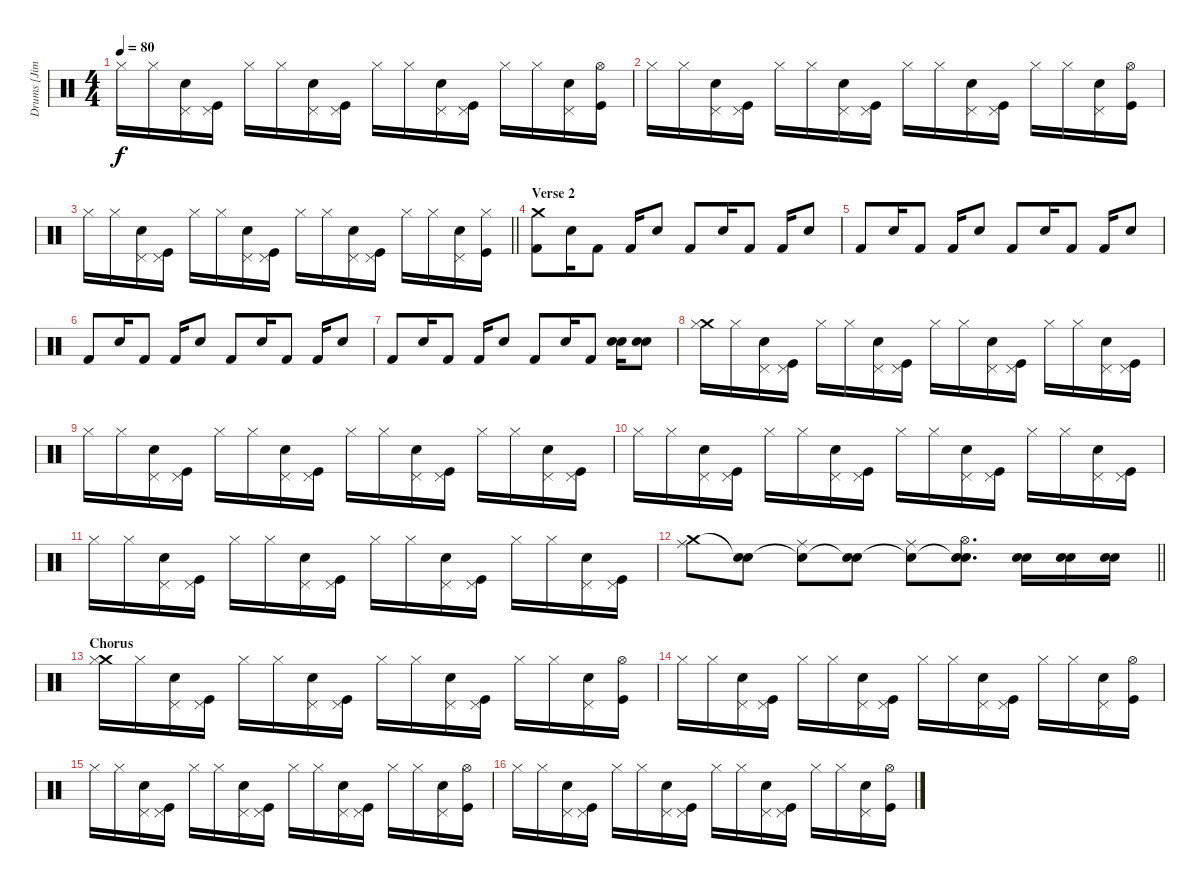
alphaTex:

\track ("Drums [Jim Duguid]" "Drums [Jim") {instrument percussion}
\staff {score}
\articulation defaults
\ts (4 4)
\tempo 80
\clef neutral
\ks c "Hi-Hat (closed)".16{dy f} "Hi-Hat (closed)".16
("Pedal Hi-Hat (hit)" "Snare (hit) 2").16 ("Pedal Hi-Hat (hit)" "Kick (hit)").16 "Hi-Hat (closed)".16 "Hi-Hat (closed)".16 ("Pedal Hi-Hat (hit)" "Snare (hit) 2").16 ("Pedal Hi-Hat (hit)" "Kick (hit)").16 "Hi-Hat (closed)".16 "Hi-Hat (closed)".16 ("Pedal Hi-Hat (hit)" "Snare (hit) 2").16 ("Pedal Hi-Hat (hit)" "Kick (hit)").16 "Hi-Hat (closed)".16 "Hi-Hat (closed)".16 ("Pedal Hi-Hat (hit)" "Snare (hit) 2").16 ("Hi-Hat (open)" "Kick (hit)").16 |
"Hi-Hat (closed)".16 "Hi-Hat (closed)".16 ("Pedal Hi-Hat (hit)" "Snare (hit) 2").16 ("Pedal Hi-Hat (hit)" "Kick (hit)").16 "Hi-Hat (closed)".16 "Hi-Hat (closed)".16 ("Pedal Hi-Hat (hit)" "Snare (hit) 2").16 ("Pedal Hi-Hat (hit)" "Kick (hit)").16 "Hi-Hat (closed)".16 "Hi-Hat (closed)".16 ("Pedal Hi-Hat (hit)" "Snare (hit) 2").16 ("Pedal Hi-Hat (hit)" "Kick (hit)").16 "Hi-Hat (closed)".16 "Hi-Hat (closed)".16 ("Pedal Hi-Hat (hit)" "Snare (hit) 2").16 ("Hi-Hat (open)" "Kick (hit)").16 |
\barLineRight lightlight "Hi-Hat (closed)".16 "Hi-Hat (closed)".16
("Pedal Hi-Hat (hit)" "Snare (hit) 2").16 ("Pedal Hi-Hat (hit)" "Kick (hit)").16 "Hi-Hat (closed)".16 "Hi-Hat (closed)".16 ("Pedal Hi-Hat (hit)" "Snare (hit) 2").16 ("Pedal Hi-Hat (hit)" "Kick (hit)").16 "Hi-Hat (closed)".16 "Hi-Hat (closed)".16 ("Pedal Hi-Hat (hit)" "Snare (hit) 2").16 ("Pedal Hi-Hat (hit)" "Kick (hit)").16 "Hi-Hat (closed)".16 "Hi-Hat (closed)".16 ("Pedal Hi-Hat (hit)" "Snare (hit) 2").16 ("Hi-Hat (closed)" "Kick (hit)").16 |
\section ("" "Verse 2")
("Crash medium (hit)" "Kick (hit) 2").8 "Snare (hit) 2".16 "Kick (hit) 2".8 "Kick (hit) 2".16 "Snare (hit) 2".8 "Kick (hit) 2".8 "Snare (hit) 2".16 "Kick (hit) 2".8 "Kick (hit) 2".16 "Snare (hit) 2".8 |
"Kick (hit) 2".8 "Snare (hit) 2".16 "Kick (hit) 2".8 "Kick (hit) 2".16 "Snare (hit) 2".8 "Kick (hit) 2".8 "Snare (hit) 2".16 "Kick (hit) 2".8 "Kick (hit) 2".16 "Snare (hit) 2".8 |
"Kick (hit) 2".8 "Snare (hit) 2".16 "Kick (hit) 2".8 "Kick (hit) 2".16 "Snare (hit) 2".8 "Kick (hit) 2".8 "Snare (hit) 2".16 "Kick (hit) 2".8 "Kick (hit) 2".16 "Snare (hit) 2".8 |
"Kick (hit) 2".8 "Snare (hit) 2".16 "Kick (hit) 2".8 "Kick (hit) 2".16 "Snare (hit) 2".8 "Kick (hit) 2".8 "Snare (hit) 2".16 "Kick (hit) 2".8 ("Electric Snare (hit)" "Snare (hit) 2").16 ("Electric Snare (hit)" "Snare (hit) 2").8 |
("Crash medium (hit)" "Hi-Hat (closed)").16 "Hi-Hat (closed)".16 ("Pedal Hi-Hat (hit)" "Snare (hit) 2").16 ("Pedal Hi-Hat (hit)" "Kick (hit)").16 "Hi-Hat (closed)".16 "Hi-Hat (closed)".16 ("Pedal Hi-Hat (hit)" "Snare (hit) 2").16 ("Pedal Hi-Hat (hit)" "Kick (hit)").16 "Hi-Hat (closed)".16 "Hi-Hat (closed)".16 ("Pedal Hi-Hat (hit)" "Snare (hit) 2").16 ("Pedal Hi-Hat (hit)" "Kick (hit)").16 "Hi-Hat (closed)".16 "Hi-Hat (closed)".16 ("Pedal Hi-Hat (hit)" "Snare (hit) 2").16 ("Pedal Hi-Hat (hit)" "Kick (hit)").16 |
"Hi-Hat (closed)".16 "Hi-Hat (closed)".16 ("Pedal Hi-Hat (hit)" "Snare (hit) 2").16 ("Pedal Hi-Hat (hit)" "Kick (hit)").16 "Hi-Hat (closed)".16 "Hi-Hat (closed)".16 ("Pedal Hi-Hat (hit)" "Snare (hit) 2").16 ("Pedal Hi-Hat (hit)" "Kick (hit)").16 "Hi-Hat (closed)".16 "Hi-Hat (closed)".16 ("Pedal Hi-Hat (hit)" "Snare (hit) 2").16 ("Pedal Hi-Hat (hit)" "Kick (hit)").16 "Hi-Hat (closed)".16 "Hi-Hat (closed)".16 ("Pedal Hi-Hat (hit)" "Snare (hit) 2").16 ("Pedal Hi-Hat (hit)" "Kick (hit)").16 |
"Hi-Hat (closed)".16 "Hi-Hat (closed)".16 ("Pedal Hi-Hat (hit)" "Snare (hit) 2").16 ("Pedal Hi-Hat (hit)" "Kick (hit)").16 "Hi-Hat (closed)".16 "Hi-Hat (closed)".16 ("Pedal Hi-Hat (hit)" "Snare (hit) 2").16 ("Pedal Hi-Hat (hit)" "Kick (hit)").16 "Hi-Hat (closed)".16 "Hi-Hat (closed)".16 ("Pedal Hi-Hat (hit)" "Snare (hit) 2").16 ("Pedal Hi-Hat (hit)" "Kick (hit)").16 "Hi-Hat (closed)".16 "Hi-Hat (closed)".16 ("Pedal Hi-Hat (hit)" "Snare (hit) 2").16 ("Pedal Hi-Hat (hit)" "Kick (hit)").16 |
"Hi-Hat (closed)".16 "Hi-Hat (closed)".16 ("Pedal Hi-Hat (hit)" "Snare (hit) 2").16 ("Pedal Hi-Hat (hit)" "Kick (hit)").16 "Hi-Hat (closed)".16 "Hi-Hat (closed)".16 ("Pedal Hi-Hat (hit)" "Snare (hit) 2").16 ("Pedal Hi-Hat (hit)" "Kick (hit)").16 "Hi-Hat (closed)".16 "Hi-Hat (closed)".16 ("Pedal Hi-Hat (hit)" "Snare (hit) 2").16 ("Pedal Hi-Hat (hit)" "Kick (hit)").16 "Hi-Hat (closed)".16 "Hi-Hat (closed)".16 ("Pedal Hi-Hat (hit)" "Snare (hit) 2").16 ("Pedal Hi-Hat (hit)" "Kick (hit)").16 |
\barLineRight lightlight
("Crash medium (hit)" "Ride (middle)").8 ("Snare (hit)"{t} "Hand Clap (hit)").8 ("Snare (hit)"{t} "Ride (middle)").8 ("Snare (hit)"{t} "Hand Clap (hit)").8 ("Snare (hit)"{t} "Ride (middle)").8 ("Snare (hit)"{t} "Hi-Hat (open)" "Hand Clap (hit)").8{d} ("Snare (hit) 2" "Electric Snare (hit)").16 ("Snare (hit) 2" "Electric Snare (hit)").16 ("Snare (hit) 2" "Electric Snare (hit)").16 |
\section ("" "Chorus")
("Crash medium (hit)" "Hi-Hat (closed)").16 "Hi-Hat (closed)".16 ("Pedal Hi-Hat (hit)" "Snare (hit) 2").16 ("Pedal Hi-Hat (hit)" "Kick (hit)").16 "Hi-Hat (closed)".16 "Hi-Hat (closed)".16 ("Pedal Hi-Hat (hit)" "Snare (hit) 2").16 ("Pedal Hi-Hat (hit)" "Kick (hit)").16 "Hi-Hat (closed)".16 "Hi-Hat (closed)".16 ("Pedal Hi-Hat (hit)" "Snare (hit) 2").16 ("Pedal Hi-Hat (hit)" "Kick (hit)").16 "Hi-Hat (closed)".16 "Hi-Hat (closed)".16 ("Pedal Hi-Hat (hit)" "Snare (hit) 2").16 ("Hi-Hat (open)" "Kick (hit)").16 |
"Hi-Hat (closed)".16 "Hi-Hat (closed)".16 ("Pedal Hi-Hat (hit)" "Snare (hit) 2").16 ("Pedal Hi-Hat (hit)" "Kick (hit)").16 "Hi-Hat (closed)".16 "Hi-Hat (closed)".16 ("Pedal Hi-Hat (hit)" "Snare (hit) 2").16 ("Pedal Hi-Hat (hit)" "Kick (hit)").16 "Hi-Hat (closed)".16 "Hi-Hat (closed)".16 ("Pedal Hi-Hat (hit)" "Snare (hit) 2").16 ("Pedal Hi-Hat (hit)" "Kick (hit)").16 "Hi-Hat (closed)".16 "Hi-Hat (closed)".16 ("Pedal Hi-Hat (hit)" "Snare (hit) 2").16 ("Hi-Hat (open)" "Kick (hit)").16 |
"Hi-Hat (closed)".16 "Hi-Hat (closed)".16 ("Pedal Hi-Hat (hit)" "Snare (hit) 2").16 ("Pedal Hi-Hat (hit)" "Kick (hit)").16 "Hi-Hat (closed)".16 "Hi-Hat (closed)".16 ("Pedal Hi-Hat (hit)" "Snare (hit) 2").16 ("Pedal Hi-Hat (hit)" "Kick (hit)").16 "Hi-Hat (closed)".16 "Hi-Hat (closed)".16 ("Pedal Hi-Hat (hit)" "Snare (hit) 2").16 ("Pedal Hi-Hat (hit)" "Kick (hit)").16 "Hi-Hat (closed)".16 "Hi-Hat (closed)".16 ("Pedal Hi-Hat (hit)" "Snare (hit) 2").16 ("Hi-Hat (open)" "Kick (hit)").16 |
"Hi-Hat (closed)".16 "Hi-Hat (closed)".16 ("Pedal Hi-Hat (hit)" "Snare (hit) 2").16 ("Pedal Hi-Hat (hit)" "Kick (hit)").16 "Hi-Hat (closed)".16 "Hi-Hat (closed)".16 ("Pedal Hi-Hat (hit)" "Snare (hit) 2").16 ("Pedal Hi-Hat (hit)" "Kick (hit)").16 "Hi-Hat (closed)".16 "Hi-Hat (closed)".16 ("Pedal Hi-Hat (hit)" "Snare (hit) 2").16 ("Pedal Hi-Hat (hit)" "Kick (hit)").16 "Hi-Hat (closed)".16 "Hi-Hat (closed)".16 ("Pedal Hi-Hat (hit)" "Snare (hit) 2").16 ("Hi-Hat (open)" "Kick (hit)").16
